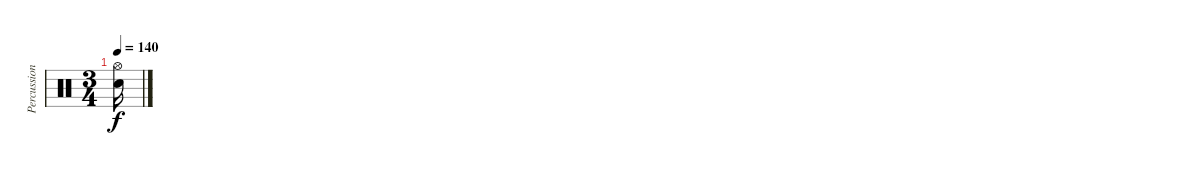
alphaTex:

\track ("Percussion" "Percussion") {instrument percussion}
\staff {score}
\articulation defaults
\ts (3 4)
\tempo 140
\clef neutral
\ks c
("Electric Snare (hit)" "Hi-Hat (open)").16{dy f}
